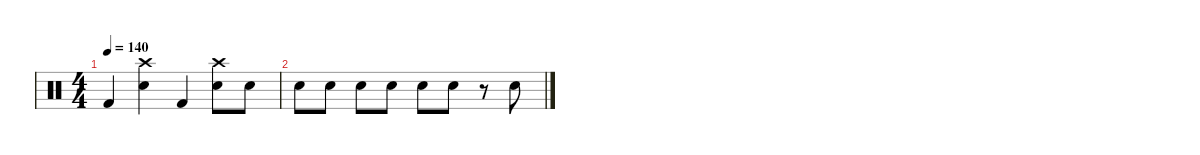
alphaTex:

\defaultSystemsLayout 4
\hideDynamics
\bracketExtendMode nobrackets
\singleTrackTrackNamePolicy hidden
\multiTrackTrackNamePolicy hidden
\otherSystemsTrackNameOrientation horizontal
\track ("Charlie Watts" "drm.") {instrument percussion}
\staff {score}
\articulation defaults
\ts (4 4)
\tempo 140
\clef neutral
\ks c "Kick (hit) 2".4{dy f beam Up}
("Snare (hit) 2" "Crash high (hit)").4{beam Down} "Kick (hit) 2".4{beam Up} ("Snare (hit) 2" "Crash high (hit)").8{beam Down} "Snare (hit) 2".8{beam Down} |
"Snare (hit) 2".8{beam Down} "Snare (hit) 2".8{beam Down} "Snare (hit) 2".8{beam Down} "Snare (hit) 2".8{beam Down} "Snare (hit) 2".8{beam Down} "Snare (hit) 2".8{beam Down} r.8{beam Down} "Snare (hit) 2".8{beam Down}
